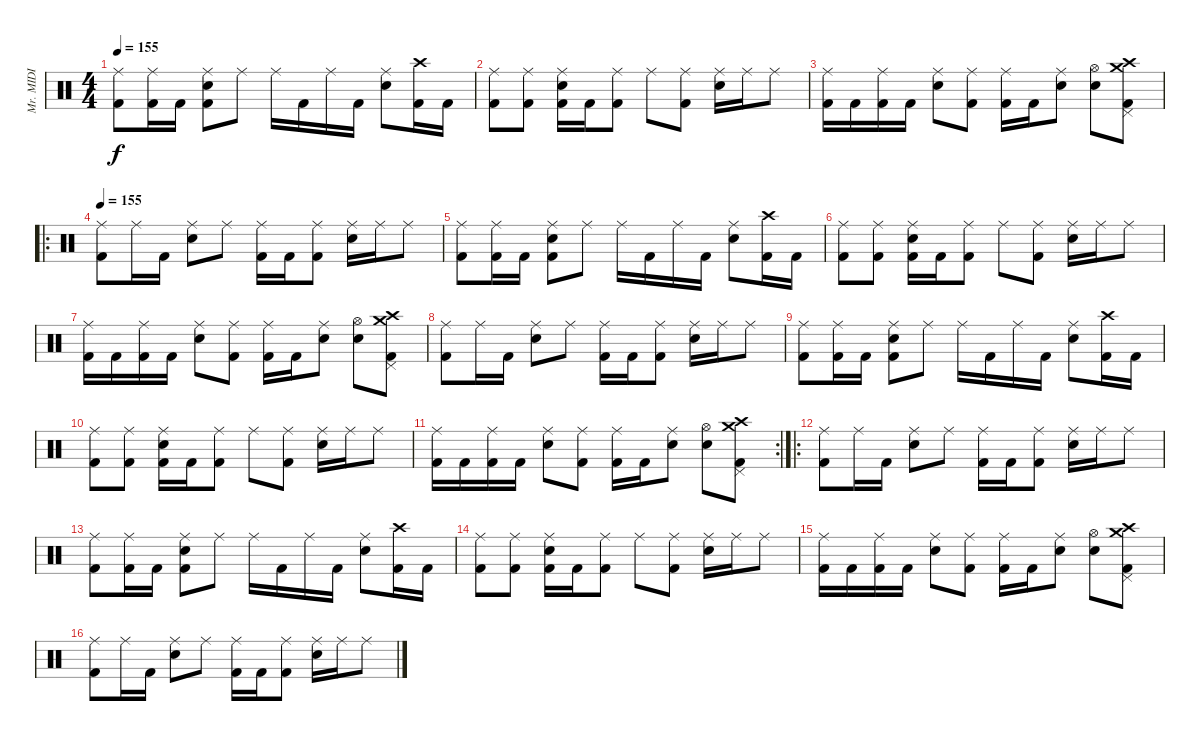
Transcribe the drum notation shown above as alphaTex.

\track ("Mr. MIDI" "Mr. MIDI") {instrument percussion}
\staff {score}
\articulation defaults
\ts (4 4)
\tempo 155
\clef neutral
\ks c
("Ride (middle)" "Kick (hit) 2").8{dy f} ("Ride (middle)" "Kick (hit) 2").16 "Kick (hit) 2".16 ("Ride (middle)" "Snare (hit) 2" "Kick (hit) 2").8 "Ride (middle)".8 "Ride (middle)".16 "Kick (hit) 2".16 "Ride (middle)".16 "Kick (hit) 2".16 ("Ride (middle)" "Snare (hit) 2").8 ("Crash high (hit)" "Kick (hit) 2").16 "Kick (hit) 2".16 |
("Ride (middle)" "Kick (hit) 2").8 ("Ride (middle)" "Kick (hit) 2").8 ("Ride (middle)" "Snare (hit) 2" "Kick (hit) 2").16 "Kick (hit) 2".16 ("Ride (middle)" "Kick (hit) 2").8 "Ride (middle)".8 ("Ride (middle)" "Kick (hit) 2").8 ("Ride (middle)" "Snare (hit) 2").16 "Ride (middle)".16 "Ride (middle)".8 |
("Ride (middle)" "Kick (hit) 2").16 "Kick (hit) 2".16 ("Ride (middle)" "Kick (hit) 2").16 "Kick (hit) 2".16 ("Ride (middle)" "Snare (hit) 2").8 ("Ride (middle)" "Kick (hit) 2").8 ("Ride (middle)" "Kick (hit) 2").16 "Kick (hit) 2".16 ("Ride (middle)" "Snare (hit) 2").8 ("Hi-Hat (open)" "Snare (hit) 2").8 ("Crash high (hit)" "Crash medium (hit)" "Pedal Hi-Hat (hit)" "Kick (hit) 2").8 |
\ro
\tempo 155
("Ride (middle)" "Kick (hit) 2").8{volume 13} "Ride (middle)".16 "Kick (hit) 2".16 ("Ride (middle)" "Snare (hit) 2").8 "Ride (middle)".8 ("Ride (middle)" "Kick (hit) 2").16 "Kick (hit) 2".16 ("Ride (middle)" "Kick (hit) 2").8 ("Ride (middle)" "Snare (hit) 2").16 "Ride (middle)".16 "Ride (middle)".8 |
("Ride (middle)" "Kick (hit) 2").8 ("Ride (middle)" "Kick (hit) 2").16 "Kick (hit) 2".16 ("Ride (middle)" "Snare (hit) 2" "Kick (hit) 2").8 "Ride (middle)".8 "Ride (middle)".16 "Kick (hit) 2".16 "Ride (middle)".16 "Kick (hit) 2".16 ("Ride (middle)" "Snare (hit) 2").8 ("Crash high (hit)" "Kick (hit) 2").16 "Kick (hit) 2".16 |
("Ride (middle)" "Kick (hit) 2").8 ("Ride (middle)" "Kick (hit) 2").8 ("Ride (middle)" "Snare (hit) 2" "Kick (hit) 2").16 "Kick (hit) 2".16 ("Ride (middle)" "Kick (hit) 2").8 "Ride (middle)".8 ("Ride (middle)" "Kick (hit) 2").8 ("Ride (middle)" "Snare (hit) 2").16 "Ride (middle)".16 "Ride (middle)".8 |
("Ride (middle)" "Kick (hit) 2").16 "Kick (hit) 2".16 ("Ride (middle)" "Kick (hit) 2").16 "Kick (hit) 2".16 ("Ride (middle)" "Snare (hit) 2").8 ("Ride (middle)" "Kick (hit) 2").8 ("Ride (middle)" "Kick (hit) 2").16 "Kick (hit) 2".16 ("Ride (middle)" "Snare (hit) 2").8 ("Hi-Hat (open)" "Snare (hit) 2").8 ("Crash high (hit)" "Crash medium (hit)" "Pedal Hi-Hat (hit)" "Kick (hit) 2").8 |
("Ride (middle)" "Kick (hit) 2").8 "Ride (middle)".16 "Kick (hit) 2".16 ("Ride (middle)" "Snare (hit) 2").8 "Ride (middle)".8 ("Ride (middle)" "Kick (hit) 2").16 "Kick (hit) 2".16 ("Ride (middle)" "Kick (hit) 2").8 ("Ride (middle)" "Snare (hit) 2").16 "Ride (middle)".16 "Ride (middle)".8 |
("Ride (middle)" "Kick (hit) 2").8 ("Ride (middle)" "Kick (hit) 2").16 "Kick (hit) 2".16 ("Ride (middle)" "Snare (hit) 2" "Kick (hit) 2").8 "Ride (middle)".8 "Ride (middle)".16 "Kick (hit) 2".16 "Ride (middle)".16 "Kick (hit) 2".16 ("Ride (middle)" "Snare (hit) 2").8 ("Crash high (hit)" "Kick (hit) 2").16 "Kick (hit) 2".16 |
("Ride (middle)" "Kick (hit) 2").8{volume 11} ("Ride (middle)" "Kick (hit) 2").8 ("Ride (middle)" "Snare (hit) 2" "Kick (hit) 2").16 "Kick (hit) 2".16 ("Ride (middle)" "Kick (hit) 2").8 "Ride (middle)".8 ("Ride (middle)" "Kick (hit) 2").8 ("Ride (middle)" "Snare (hit) 2").16 "Ride (middle)".16 "Ride (middle)".8 |
\rc 2
("Ride (middle)" "Kick (hit) 2").16 "Kick (hit) 2".16 ("Ride (middle)" "Kick (hit) 2").16 "Kick (hit) 2".16 ("Ride (middle)" "Snare (hit) 2").8 ("Ride (middle)" "Kick (hit) 2").8 ("Ride (middle)" "Kick (hit) 2").16 "Kick (hit) 2".16 ("Ride (middle)" "Snare (hit) 2").8 ("Hi-Hat (open)" "Snare (hit) 2").8 ("Crash high (hit)" "Crash medium (hit)" "Pedal Hi-Hat (hit)" "Kick (hit) 2").8 |
\ro
("Ride (middle)" "Kick (hit) 2").8{volume 11} "Ride (middle)".16 "Kick (hit) 2".16 ("Ride (middle)" "Snare (hit) 2").8 "Ride (middle)".8 ("Ride (middle)" "Kick (hit) 2").16 "Kick (hit) 2".16 ("Ride (middle)" "Kick (hit) 2").8 ("Ride (middle)" "Snare (hit) 2").16 "Ride (middle)".16 "Ride (middle)".8 |
("Ride (middle)" "Kick (hit) 2").8 ("Ride (middle)" "Kick (hit) 2").16 "Kick (hit) 2".16 ("Ride (middle)" "Snare (hit) 2" "Kick (hit) 2").8 "Ride (middle)".8 "Ride (middle)".16 "Kick (hit) 2".16 "Ride (middle)".16 "Kick (hit) 2".16 ("Ride (middle)" "Snare (hit) 2").8 ("Crash high (hit)" "Kick (hit) 2").16 "Kick (hit) 2".16 |
("Ride (middle)" "Kick (hit) 2").8 ("Ride (middle)" "Kick (hit) 2").8 ("Ride (middle)" "Snare (hit) 2" "Kick (hit) 2").16 "Kick (hit) 2".16 ("Ride (middle)" "Kick (hit) 2").8 "Ride (middle)".8 ("Ride (middle)" "Kick (hit) 2").8 ("Ride (middle)" "Snare (hit) 2").16 "Ride (middle)".16 "Ride (middle)".8 |
("Ride (middle)" "Kick (hit) 2").16 "Kick (hit) 2".16 ("Ride (middle)" "Kick (hit) 2").16 "Kick (hit) 2".16 ("Ride (middle)" "Snare (hit) 2").8 ("Ride (middle)" "Kick (hit) 2").8 ("Ride (middle)" "Kick (hit) 2").16 "Kick (hit) 2".16 ("Ride (middle)" "Snare (hit) 2").8 ("Hi-Hat (open)" "Snare (hit) 2").8 ("Crash high (hit)" "Crash medium (hit)" "Pedal Hi-Hat (hit)" "Kick (hit) 2").8 |
("Ride (middle)" "Kick (hit) 2").8 "Ride (middle)".16 "Kick (hit) 2".16 ("Ride (middle)" "Snare (hit) 2").8 "Ride (middle)".8 ("Ride (middle)" "Kick (hit) 2").16 "Kick (hit) 2".16 ("Ride (middle)" "Kick (hit) 2").8 ("Ride (middle)" "Snare (hit) 2").16 "Ride (middle)".16 "Ride (middle)".8
